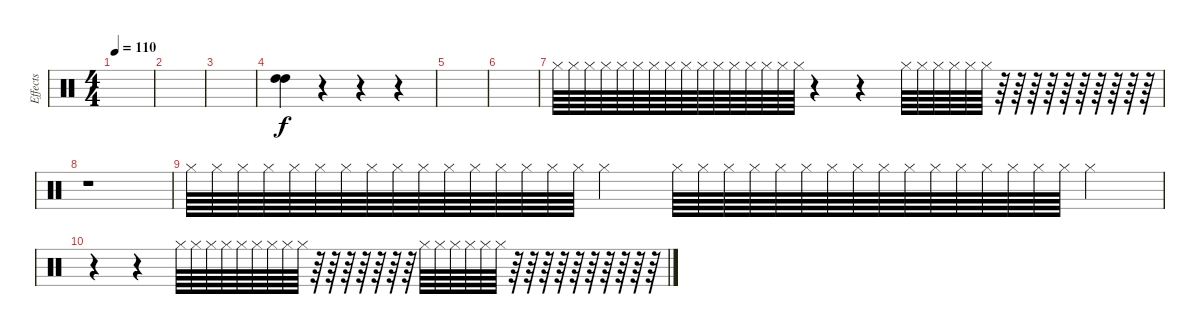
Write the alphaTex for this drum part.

\track ("Effects" "Effects") {instrument percussion}
\staff {score}
\articulation defaults
\ts (4 4)
\tempo 110
\clef neutral
\ks c
|
|
|
("High Tom (hit)" "High Tom (hit)").4 r.4 r.4 r.4 |
|
|
"Hi-Hat (closed)".64 "Hi-Hat (closed)".64 "Hi-Hat (closed)".64 "Hi-Hat (closed)".64 "Hi-Hat (closed)".64 "Hi-Hat (closed)".64 "Hi-Hat (closed)".64 "Hi-Hat (closed)".64 "Hi-Hat (closed)".64 "Hi-Hat (closed)".64 "Hi-Hat (closed)".64 "Hi-Hat (closed)".64 "Hi-Hat (closed)".64 "Hi-Hat (closed)".64 "Hi-Hat (closed)".64 "Hi-Hat (closed)".64 r.4 r.4 "Hi-Hat (closed)".64 "Hi-Hat (closed)".64 "Hi-Hat (closed)".64 "Hi-Hat (closed)".64 "Hi-Hat (closed)".64 "Hi-Hat (closed)".64 r.64 r.64 r.64 r.64 r.64 r.64 r.64 r.64 r.64 r.64 |
r.1 |
"Hi-Hat (closed)".64 "Hi-Hat (closed)".64 "Hi-Hat (closed)".64 "Hi-Hat (closed)".64 "Hi-Hat (closed)".64 "Hi-Hat (closed)".64 "Hi-Hat (closed)".64 "Hi-Hat (closed)".64 "Hi-Hat (closed)".64 "Hi-Hat (closed)".64 "Hi-Hat (closed)".64 "Hi-Hat (closed)".64 "Hi-Hat (closed)".64 "Hi-Hat (closed)".64 "Hi-Hat (closed)".64 "Hi-Hat (closed)".64 "Hi-Hat (closed)".4 "Hi-Hat (closed)".64 "Hi-Hat (closed)".64 "Hi-Hat (closed)".64 "Hi-Hat (closed)".64 "Hi-Hat (closed)".64 "Hi-Hat (closed)".64 "Hi-Hat (closed)".64 "Hi-Hat (closed)".64 "Hi-Hat (closed)".64 "Hi-Hat (closed)".64 "Hi-Hat (closed)".64 "Hi-Hat (closed)".64 "Hi-Hat (closed)".64 "Hi-Hat (closed)".64 "Hi-Hat (closed)".64 "Hi-Hat (closed)".64 "Hi-Hat (closed)".4 |
r.4 r.4 "Hi-Hat (closed)".64 "Hi-Hat (closed)".64 "Hi-Hat (closed)".64 "Hi-Hat (closed)".64 "Hi-Hat (closed)".64 "Hi-Hat (closed)".64 "Hi-Hat (closed)".64 "Hi-Hat (closed)".64 "Hi-Hat (closed)".64 r.64 r.64 r.64 r.64 r.64 r.64 r.64 "Hi-Hat (closed)".64 "Hi-Hat (closed)".64 "Hi-Hat (closed)".64 "Hi-Hat (closed)".64 "Hi-Hat (closed)".64 "Hi-Hat (closed)".64 r.64 r.64 r.64 r.64 r.64 r.64 r.64 r.64 r.64 r.64
